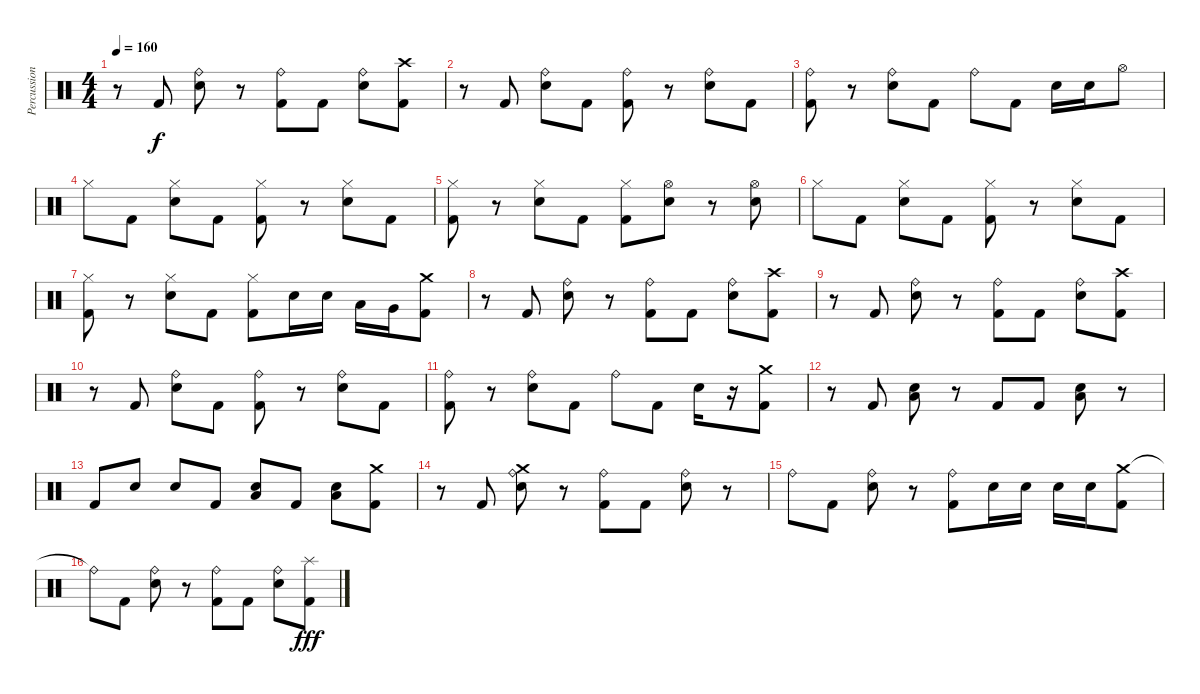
\track ("Percussion" "Percussion") {instrument percussion}
\staff {score}
\articulation defaults
\ts (4 4)
\tempo 160
\clef neutral
\ks c
r.8{dy f} "Kick (hit) 2".8 ("Ride (bell)" "Electric Snare (hit)").8 r.8 ("Ride (bell)" "Kick (hit) 2").8 "Kick (hit) 2".8 ("Ride (bell)" "Electric Snare (hit)").8 ("Crash high (hit)" "Kick (hit) 2").8 |
r.8 "Kick (hit) 2".8 ("Ride (bell)" "Electric Snare (hit)").8 "Kick (hit) 2".8 ("Ride (bell)" "Kick (hit) 2").8 r.8 ("Ride (bell)" "Electric Snare (hit)").8 "Kick (hit) 2".8 |
("Ride (bell)" "Kick (hit) 2").8 r.8 ("Ride (bell)" "Electric Snare (hit)").8 "Kick (hit) 2".8 "Ride (bell)".8 "Kick (hit) 2".8 "Electric Snare (hit)".16 "Electric Snare (hit)".16 "Hi-Hat (open)".8 |
"Hi-Hat (closed)".8 "Kick (hit) 2".8 ("Hi-Hat (closed)" "Electric Snare (hit)").8 "Kick (hit) 2".8 ("Hi-Hat (closed)" "Kick (hit) 2").8 r.8 ("Hi-Hat (closed)" "Electric Snare (hit)").8 "Kick (hit) 2".8 |
("Hi-Hat (closed)" "Kick (hit) 2").8 r.8 ("Hi-Hat (closed)" "Electric Snare (hit)").8 "Kick (hit) 2".8 ("Hi-Hat (closed)" "Kick (hit) 2").8 ("Hi-Hat (open)" "Electric Snare (hit)").8 r.8 ("Hi-Hat (open)" "Electric Snare (hit)").8 |
"Hi-Hat (closed)".8 "Kick (hit) 2".8 ("Hi-Hat (closed)" "Electric Snare (hit)").8 "Kick (hit) 2".8 ("Hi-Hat (closed)" "Kick (hit) 2").8 r.8 ("Hi-Hat (closed)" "Electric Snare (hit)").8 "Kick (hit) 2".8 |
("Hi-Hat (closed)" "Kick (hit) 2").8 r.8 ("Hi-Hat (closed)" "Electric Snare (hit)").8 "Kick (hit) 2".8 ("Hi-Hat (closed)" "Kick (hit) 2").8 "Electric Snare (hit)".16 "Electric Snare (hit)".16 "Low Tom (hit)".16 "Very Low Tom (hit)".16 ("Crash medium (hit)" "Kick (hit) 2").8 |
r.8 "Kick (hit) 2".8 ("Ride (bell)" "Electric Snare (hit)").8 r.8 ("Ride (bell)" "Kick (hit) 2").8 "Kick (hit) 2".8 ("Ride (bell)" "Electric Snare (hit)").8 ("Crash high (hit)" "Kick (hit) 2").8 |
r.8 "Kick (hit) 2".8 ("Ride (bell)" "Electric Snare (hit)").8 r.8 ("Ride (bell)" "Kick (hit) 2").8 "Kick (hit) 2".8 ("Ride (bell)" "Electric Snare (hit)").8 ("Crash high (hit)" "Kick (hit) 2").8 |
r.8 "Kick (hit) 2".8 ("Ride (bell)" "Electric Snare (hit)").8 "Kick (hit) 2".8 ("Ride (bell)" "Kick (hit) 2").8 r.8 ("Ride (bell)" "Electric Snare (hit)").8 "Kick (hit) 2".8 |
("Ride (bell)" "Kick (hit) 2").8 r.8 ("Ride (bell)" "Electric Snare (hit)").8 "Kick (hit) 2".8 "Ride (bell)".8 "Kick (hit) 2".8 "Electric Snare (hit)".16 r.16 ("Crash medium (hit)" "Kick (hit) 2").8 |
r.8 "Kick (hit) 2".8 ("Low Tom (hit)" "Electric Snare (hit)").8 r.8 "Kick (hit) 2".8 "Kick (hit) 2".8 ("Low Tom (hit)" "Electric Snare (hit)").8 r.8 |
"Kick (hit) 2".8 "Electric Snare (hit)".8 "Electric Snare (hit)".8 "Kick (hit) 2".8 ("Low Tom (hit)" "Electric Snare (hit)").8 "Kick (hit) 2".8 ("Low Tom (hit)" "Electric Snare (hit)").8 ("Crash medium (hit)" "Kick (hit) 2").8 |
r.8 "Kick (hit) 2".8 ("Crash medium (hit)" "Ride (bell)" "Electric Snare (hit)").8 r.8 ("Ride (bell)" "Kick (hit) 2").8 "Kick (hit) 2".8 ("Ride (bell)" "Electric Snare (hit)").8 r.8 |
"Ride (bell)".8 "Kick (hit) 2".8 ("Ride (bell)" "Electric Snare (hit)").8 r.8 ("Ride (bell)" "Kick (hit) 2").8 "Electric Snare (hit)".16 "Electric Snare (hit)".16 "Electric Snare (hit)".16 "Electric Snare (hit)".16 ("Crash medium (hit)" "Kick (hit) 2").8 |
"Ride (bell)"{t}.8 "Kick (hit) 2".8 ("Ride (bell)" "Electric Snare (hit)").8 r.8 ("Ride (bell)" "Kick (hit) 2").8 "Kick (hit) 2".8 ("Ride (bell)" "Electric Snare (hit)").8 ("Splash (hit)" "Kick (hit) 2").8{dy fff}
